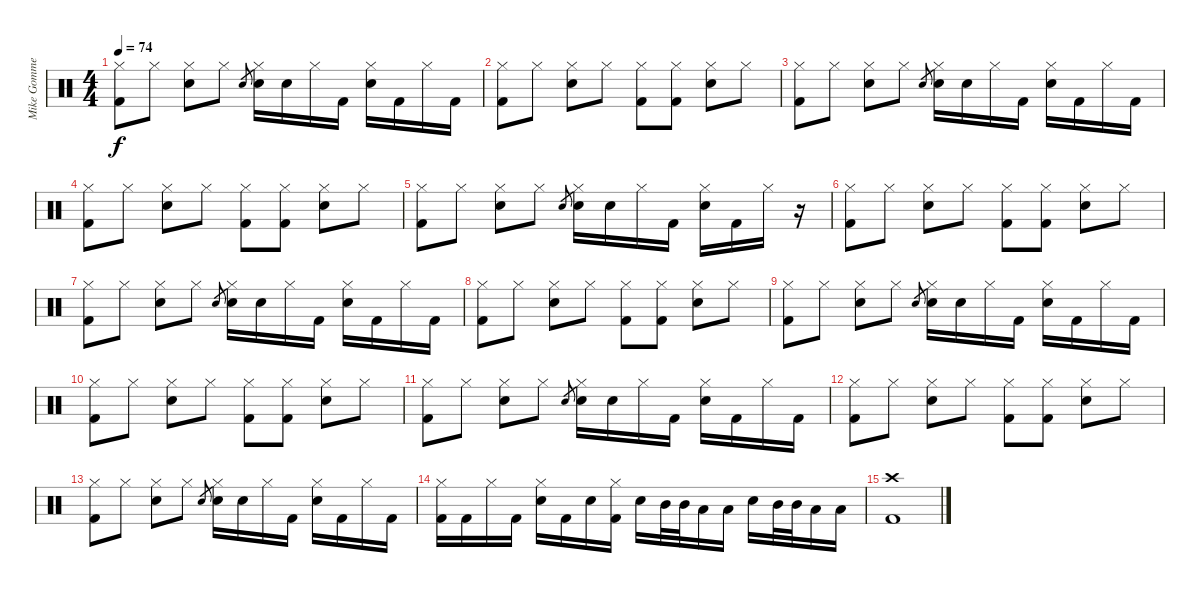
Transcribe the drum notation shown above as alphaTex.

\track ("Mike Gommeringer" "Mike Gomme") {instrument percussion}
\staff {score}
\articulation defaults
\ts (4 4)
\tempo 74
\clef neutral
\ks c
("Hi-Hat (closed)" "Kick (hit) 2").8{dy f} "Hi-Hat (closed)".8 ("Hi-Hat (closed)" "Snare (hit) 2").8 "Hi-Hat (closed)".8 "Snare (hit) 2".8{gr} ("Hi-Hat (closed)" "Snare (hit) 2").16 "Snare (hit) 2".16 "Hi-Hat (closed)".16 "Kick (hit) 2".16 ("Hi-Hat (closed)" "Snare (hit) 2").16 "Kick (hit) 2".16 "Hi-Hat (closed)".16 "Kick (hit) 2".16 |
("Hi-Hat (closed)" "Kick (hit) 2").8 "Hi-Hat (closed)".8 ("Hi-Hat (closed)" "Snare (hit) 2").8 "Hi-Hat (closed)".8 ("Hi-Hat (closed)" "Kick (hit) 2").8 ("Hi-Hat (closed)" "Kick (hit) 2").8 ("Hi-Hat (closed)" "Snare (hit) 2").8 "Hi-Hat (closed)".8 |
("Hi-Hat (closed)" "Kick (hit) 2").8 "Hi-Hat (closed)".8 ("Hi-Hat (closed)" "Snare (hit) 2").8 "Hi-Hat (closed)".8 "Snare (hit) 2".8{gr} ("Hi-Hat (closed)" "Snare (hit) 2").16 "Snare (hit) 2".16 "Hi-Hat (closed)".16 "Kick (hit) 2".16 ("Hi-Hat (closed)" "Snare (hit) 2").16 "Kick (hit) 2".16 "Hi-Hat (closed)".16 "Kick (hit) 2".16 |
("Hi-Hat (closed)" "Kick (hit) 2").8 "Hi-Hat (closed)".8 ("Hi-Hat (closed)" "Snare (hit) 2").8 "Hi-Hat (closed)".8 ("Hi-Hat (closed)" "Kick (hit) 2").8 ("Hi-Hat (closed)" "Kick (hit) 2").8 ("Hi-Hat (closed)" "Snare (hit) 2").8 "Hi-Hat (closed)".8 |
("Hi-Hat (closed)" "Kick (hit) 2").8 "Hi-Hat (closed)".8 ("Hi-Hat (closed)" "Snare (hit) 2").8 "Hi-Hat (closed)".8 "Snare (hit) 2".8{gr} ("Hi-Hat (closed)" "Snare (hit) 2").16 "Snare (hit) 2".16 "Hi-Hat (closed)".16 "Kick (hit) 2".16 ("Hi-Hat (closed)" "Snare (hit) 2").16 "Kick (hit) 2".16 "Hi-Hat (closed)".16 r.16 |
("Hi-Hat (closed)" "Kick (hit) 2").8 "Hi-Hat (closed)".8 ("Hi-Hat (closed)" "Snare (hit) 2").8 "Hi-Hat (closed)".8 ("Hi-Hat (closed)" "Kick (hit) 2").8 ("Hi-Hat (closed)" "Kick (hit) 2").8 ("Hi-Hat (closed)" "Snare (hit) 2").8 "Hi-Hat (closed)".8 |
("Hi-Hat (closed)" "Kick (hit) 2").8 "Hi-Hat (closed)".8 ("Hi-Hat (closed)" "Snare (hit) 2").8 "Hi-Hat (closed)".8 "Snare (hit) 2".8{gr} ("Hi-Hat (closed)" "Snare (hit) 2").16 "Snare (hit) 2".16 "Hi-Hat (closed)".16 "Kick (hit) 2".16 ("Hi-Hat (closed)" "Snare (hit) 2").16 "Kick (hit) 2".16 "Hi-Hat (closed)".16 "Kick (hit) 2".16 |
("Hi-Hat (closed)" "Kick (hit) 2").8 "Hi-Hat (closed)".8 ("Hi-Hat (closed)" "Snare (hit) 2").8 "Hi-Hat (closed)".8 ("Hi-Hat (closed)" "Kick (hit) 2").8 ("Hi-Hat (closed)" "Kick (hit) 2").8 ("Hi-Hat (closed)" "Snare (hit) 2").8 "Hi-Hat (closed)".8 |
("Hi-Hat (closed)" "Kick (hit) 2").8 "Hi-Hat (closed)".8 ("Hi-Hat (closed)" "Snare (hit) 2").8 "Hi-Hat (closed)".8 "Snare (hit) 2".8{gr} ("Hi-Hat (closed)" "Snare (hit) 2").16 "Snare (hit) 2".16 "Hi-Hat (closed)".16 "Kick (hit) 2".16 ("Hi-Hat (closed)" "Snare (hit) 2").16 "Kick (hit) 2".16 "Hi-Hat (closed)".16 "Kick (hit) 2".16 |
("Hi-Hat (closed)" "Kick (hit) 2").8 "Hi-Hat (closed)".8 ("Hi-Hat (closed)" "Snare (hit) 2").8 "Hi-Hat (closed)".8 ("Hi-Hat (closed)" "Kick (hit) 2").8 ("Hi-Hat (closed)" "Kick (hit) 2").8 ("Hi-Hat (closed)" "Snare (hit) 2").8 "Hi-Hat (closed)".8 |
("Hi-Hat (closed)" "Kick (hit) 2").8 "Hi-Hat (closed)".8 ("Hi-Hat (closed)" "Snare (hit) 2").8 "Hi-Hat (closed)".8 "Snare (hit) 2".8{gr} ("Hi-Hat (closed)" "Snare (hit) 2").16 "Snare (hit) 2".16 "Hi-Hat (closed)".16 "Kick (hit) 2".16 ("Hi-Hat (closed)" "Snare (hit) 2").16 "Kick (hit) 2".16 "Hi-Hat (closed)".16 "Kick (hit) 2".16 |
("Hi-Hat (closed)" "Kick (hit) 2").8 "Hi-Hat (closed)".8 ("Hi-Hat (closed)" "Snare (hit) 2").8 "Hi-Hat (closed)".8 ("Hi-Hat (closed)" "Kick (hit) 2").8 ("Hi-Hat (closed)" "Kick (hit) 2").8 ("Hi-Hat (closed)" "Snare (hit) 2").8 "Hi-Hat (closed)".8 |
("Hi-Hat (closed)" "Kick (hit) 2").8 "Hi-Hat (closed)".8 ("Hi-Hat (closed)" "Snare (hit) 2").8 "Hi-Hat (closed)".8 "Snare (hit) 2".8{gr} ("Hi-Hat (closed)" "Snare (hit) 2").16 "Snare (hit) 2".16 "Hi-Hat (closed)".16 "Kick (hit) 2".16 ("Hi-Hat (closed)" "Snare (hit) 2").16 "Kick (hit) 2".16 "Hi-Hat (closed)".16 "Kick (hit) 2".16 |
("Hi-Hat (closed)" "Kick (hit) 2").16 "Kick (hit) 2".16 "Hi-Hat (closed)".16 "Kick (hit) 2".16 ("Hi-Hat (closed)" "Snare (hit) 2").16 "Kick (hit) 2".16 "Snare (hit) 2".16 ("Hi-Hat (closed)" "Kick (hit) 2").16 "Snare (hit) 2".16 "Mid Tom (hit)".32 "Mid Tom (hit)".32 "Low Tom (hit)".16 "Low Tom (hit)".16 "Snare (hit) 2".16 "Mid Tom (hit)".32 "Mid Tom (hit)".32 "Low Tom (hit)".16 "Low Tom (hit)".16 |
("Crash high (hit)" "Kick (hit) 2").1
